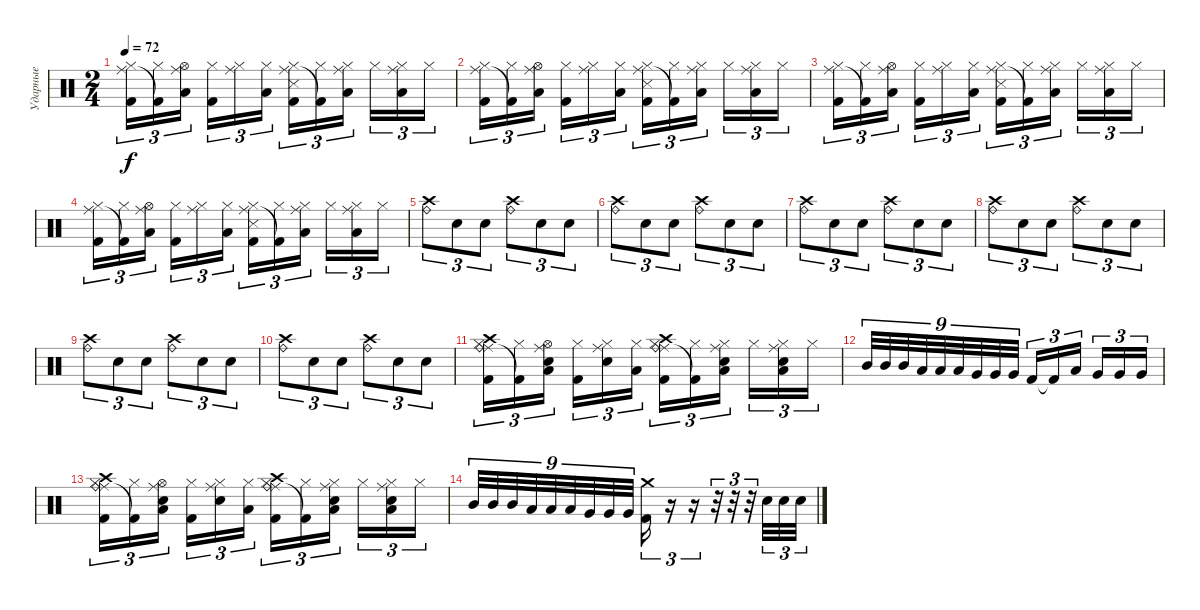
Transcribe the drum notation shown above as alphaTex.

\track ("Ударные" "Ударные") {instrument percussion}
\staff {score}
\articulation defaults
\ts (2 4)
\tempo 72
\clef neutral
\ks c
("Hi-Hat (closed)" "Ride (middle)" "Kick (hit) 2").16{tu (3 2) dy f} ("Hi-Hat (closed)" "Kick (hit) 2"{t}).16{tu (3 2)} ("Hi-Hat (open)" "Ride (middle)" "Low Tom (hit)").16{tu (3 2)} ("Hi-Hat (closed)" "Kick (hit) 2").16{tu (3 2)} ("Hi-Hat (closed)" "Ride (middle)").16{tu (3 2)} ("Hi-Hat (closed)" "Low Tom (hit)").16{tu (3 2)} ("Hi-Hat (closed)" "Ride (middle)" "Snare (side stick) 3" "Kick (hit) 2").16{tu (3 2)} ("Hi-Hat (closed)" "Kick (hit) 2"{t}).16{tu (3 2)} ("Hi-Hat (closed)" "Ride (middle)" "Low Tom (hit)").16{tu (3 2)} "Hi-Hat (closed)".16{tu (3 2)} ("Hi-Hat (closed)" "Ride (middle)" "Low Tom (hit)").16{tu (3 2)} "Hi-Hat (closed)".16{tu (3 2)} |
("Hi-Hat (closed)" "Ride (middle)" "Kick (hit) 2").16{tu (3 2)} ("Hi-Hat (closed)" "Kick (hit) 2"{t}).16{tu (3 2)} ("Hi-Hat (open)" "Ride (middle)" "Low Tom (hit)").16{tu (3 2)} ("Hi-Hat (closed)" "Kick (hit) 2").16{tu (3 2)} ("Hi-Hat (closed)" "Ride (middle)").16{tu (3 2)} ("Hi-Hat (closed)" "Low Tom (hit)").16{tu (3 2)} ("Hi-Hat (closed)" "Ride (middle)" "Snare (side stick) 3" "Kick (hit) 2").16{tu (3 2)} ("Hi-Hat (closed)" "Kick (hit) 2"{t}).16{tu (3 2)} ("Hi-Hat (closed)" "Ride (middle)" "Low Tom (hit)").16{tu (3 2)} "Hi-Hat (closed)".16{tu (3 2)} ("Hi-Hat (closed)" "Ride (middle)" "Low Tom (hit)").16{tu (3 2)} "Hi-Hat (closed)".16{tu (3 2)} |
("Hi-Hat (closed)" "Ride (middle)" "Kick (hit) 2").16{tu (3 2)} ("Hi-Hat (closed)" "Kick (hit) 2"{t}).16{tu (3 2)} ("Hi-Hat (open)" "Ride (middle)" "Low Tom (hit)").16{tu (3 2)} ("Hi-Hat (closed)" "Kick (hit) 2").16{tu (3 2)} ("Hi-Hat (closed)" "Ride (middle)").16{tu (3 2)} ("Hi-Hat (closed)" "Low Tom (hit)").16{tu (3 2)} ("Hi-Hat (closed)" "Ride (middle)" "Snare (side stick) 3" "Kick (hit) 2").16{tu (3 2)} ("Hi-Hat (closed)" "Kick (hit) 2"{t}).16{tu (3 2)} ("Hi-Hat (closed)" "Ride (middle)" "Low Tom (hit)").16{tu (3 2)} "Hi-Hat (closed)".16{tu (3 2)} ("Hi-Hat (closed)" "Ride (middle)" "Low Tom (hit)").16{tu (3 2)} "Hi-Hat (closed)".16{tu (3 2)} |
("Hi-Hat (closed)" "Ride (middle)" "Kick (hit) 2").16{tu (3 2)} ("Hi-Hat (closed)" "Kick (hit) 2"{t}).16{tu (3 2)} ("Hi-Hat (open)" "Ride (middle)" "Low Tom (hit)").16{tu (3 2)} ("Hi-Hat (closed)" "Kick (hit) 2").16{tu (3 2)} ("Hi-Hat (closed)" "Ride (middle)").16{tu (3 2)} ("Hi-Hat (closed)" "Low Tom (hit)").16{tu (3 2)} ("Hi-Hat (closed)" "Ride (middle)" "Snare (side stick) 3" "Kick (hit) 2").16{tu (3 2)} ("Hi-Hat (closed)" "Kick (hit) 2"{t}).16{tu (3 2)} ("Hi-Hat (closed)" "Ride (middle)" "Low Tom (hit)").16{tu (3 2)} "Hi-Hat (closed)".16{tu (3 2)} ("Hi-Hat (closed)" "Ride (middle)" "Low Tom (hit)").16{tu (3 2)} "Hi-Hat (closed)".16{tu (3 2)} |
("Crash high (hit)" "Ride (bell)").8{tu (3 2)} "Electric Snare (hit)".8{tu (3 2)} "Electric Snare (hit)".8{tu (3 2)} ("Crash high (hit)" "Ride (bell)").8{tu (3 2)} "Electric Snare (hit)".8{tu (3 2)} "Electric Snare (hit)".8{tu (3 2)} |
("Crash high (hit)" "Ride (bell)").8{tu (3 2)} "Electric Snare (hit)".8{tu (3 2)} "Electric Snare (hit)".8{tu (3 2)} ("Crash high (hit)" "Ride (bell)").8{tu (3 2)} "Electric Snare (hit)".8{tu (3 2)} "Electric Snare (hit)".8{tu (3 2)} |
("Crash high (hit)" "Ride (bell)").8{tu (3 2)} "Electric Snare (hit)".8{tu (3 2)} "Electric Snare (hit)".8{tu (3 2)} ("Crash high (hit)" "Ride (bell)").8{tu (3 2)} "Electric Snare (hit)".8{tu (3 2)} "Electric Snare (hit)".8{tu (3 2)} |
("Crash high (hit)" "Ride (bell)").8{tu (3 2)} "Electric Snare (hit)".8{tu (3 2)} "Electric Snare (hit)".8{tu (3 2)} ("Crash high (hit)" "Ride (bell)").8{tu (3 2)} "Electric Snare (hit)".8{tu (3 2)} "Electric Snare (hit)".8{tu (3 2)} |
("Crash high (hit)" "Ride (bell)").8{tu (3 2)} "Electric Snare (hit)".8{tu (3 2)} "Electric Snare (hit)".8{tu (3 2)} ("Crash high (hit)" "Ride (bell)").8{tu (3 2)} "Electric Snare (hit)".8{tu (3 2)} "Electric Snare (hit)".8{tu (3 2)} |
("Crash high (hit)" "Ride (bell)").8{tu (3 2)} "Electric Snare (hit)".8{tu (3 2)} "Electric Snare (hit)".8{tu (3 2)} ("Crash high (hit)" "Ride (bell)").8{tu (3 2)} "Electric Snare (hit)".8{tu (3 2)} "Electric Snare (hit)".8{tu (3 2)} |
("Hi-Hat (closed)" "Ride (middle)" "Crash high (hit)" "Ride (bell)" "Kick (hit) 2").16{tu (3 2)} ("Hi-Hat (closed)" "Kick (hit) 2"{t}).16{tu (3 2)} ("Hi-Hat (open)" "Ride (middle)" "Low Tom (hit)" "Electric Snare (hit)").16{tu (3 2)} ("Hi-Hat (closed)" "Kick (hit) 2").16{tu (3 2)} ("Hi-Hat (closed)" "Ride (middle)" "Electric Snare (hit)").16{tu (3 2)} ("Hi-Hat (closed)" "Low Tom (hit)").16{tu (3 2)} ("Hi-Hat (closed)" "Ride (middle)" "Crash high (hit)" "Ride (bell)" "Kick (hit) 2").16{tu (3 2)} ("Hi-Hat (closed)" "Kick (hit) 2"{t}).16{tu (3 2)} ("Hi-Hat (closed)" "Ride (middle)" "Low Tom (hit)" "Electric Snare (hit)").16{tu (3 2)} "Hi-Hat (closed)".16{tu (3 2)} ("Hi-Hat (closed)" "Ride (middle)" "Low Tom (hit)" "Electric Snare (hit)").16{tu (3 2)} "Hi-Hat (closed)".16{tu (3 2)} |
"Mid Tom (hit)".32{tu (9 8)} "Mid Tom (hit)".32{tu (9 8)} "Mid Tom (hit)".32{tu (9 8)} "Low Tom (hit)".32{tu (9 8)} "Low Tom (hit)".32{tu (9 8)} "Low Tom (hit)".32{tu (9 8)} "Very Low Tom (hit)".32{tu (9 8)} "Very Low Tom (hit)".32{tu (9 8)} "Very Low Tom (hit)".32{tu (9 8)} "Kick (hit) 2".16{tu (3 2)} "Kick (hit) 2"{t}.16{tu (3 2)} "Low Tom (hit)".16{tu (3 2)} "Very Low Tom (hit)".16{tu (3 2)} "Very Low Tom (hit)".16{tu (3 2)} "Very Low Tom (hit)".16{tu (3 2)} |
("Hi-Hat (closed)" "Ride (middle)" "Crash high (hit)" "Ride (bell)" "Kick (hit) 2").16{tu (3 2)} ("Hi-Hat (closed)" "Kick (hit) 2"{t}).16{tu (3 2)} ("Hi-Hat (open)" "Ride (middle)" "Low Tom (hit)" "Electric Snare (hit)").16{tu (3 2)} ("Hi-Hat (closed)" "Kick (hit) 2").16{tu (3 2)} ("Hi-Hat (closed)" "Ride (middle)" "Electric Snare (hit)").16{tu (3 2)} ("Hi-Hat (closed)" "Low Tom (hit)").16{tu (3 2)} ("Hi-Hat (closed)" "Ride (middle)" "Crash high (hit)" "Ride (bell)" "Kick (hit) 2").16{tu (3 2)} ("Hi-Hat (closed)" "Kick (hit) 2"{t}).16{tu (3 2)} ("Hi-Hat (closed)" "Ride (middle)" "Low Tom (hit)" "Electric Snare (hit)").16{tu (3 2)} "Hi-Hat (closed)".16{tu (3 2)} ("Hi-Hat (closed)" "Ride (middle)" "Low Tom (hit)" "Electric Snare (hit)").16{tu (3 2)} "Hi-Hat (closed)".16{tu (3 2)} |
"Mid Tom (hit)".32{tu (9 8)} "Mid Tom (hit)".32{tu (9 8)} "Mid Tom (hit)".32{tu (9 8)} "Low Tom (hit)".32{tu (9 8)} "Low Tom (hit)".32{tu (9 8)} "Low Tom (hit)".32{tu (9 8)} "Very Low Tom (hit)".32{tu (9 8)} "Very Low Tom (hit)".32{tu (9 8)} "Very Low Tom (hit)".32{tu (9 8)} ("Crash medium (hit)" "Kick (hit) 2").16{tu (3 2)} r.16{tu (3 2)} r.16{tu (3 2)} r.32{tu (3 2)} r.32{tu (3 2)} r.32{tu (3 2)} "Electric Snare (hit)".32{tu (3 2)} "Electric Snare (hit)".32{tu (3 2)} "Electric Snare (hit)".32{tu (3 2)}
